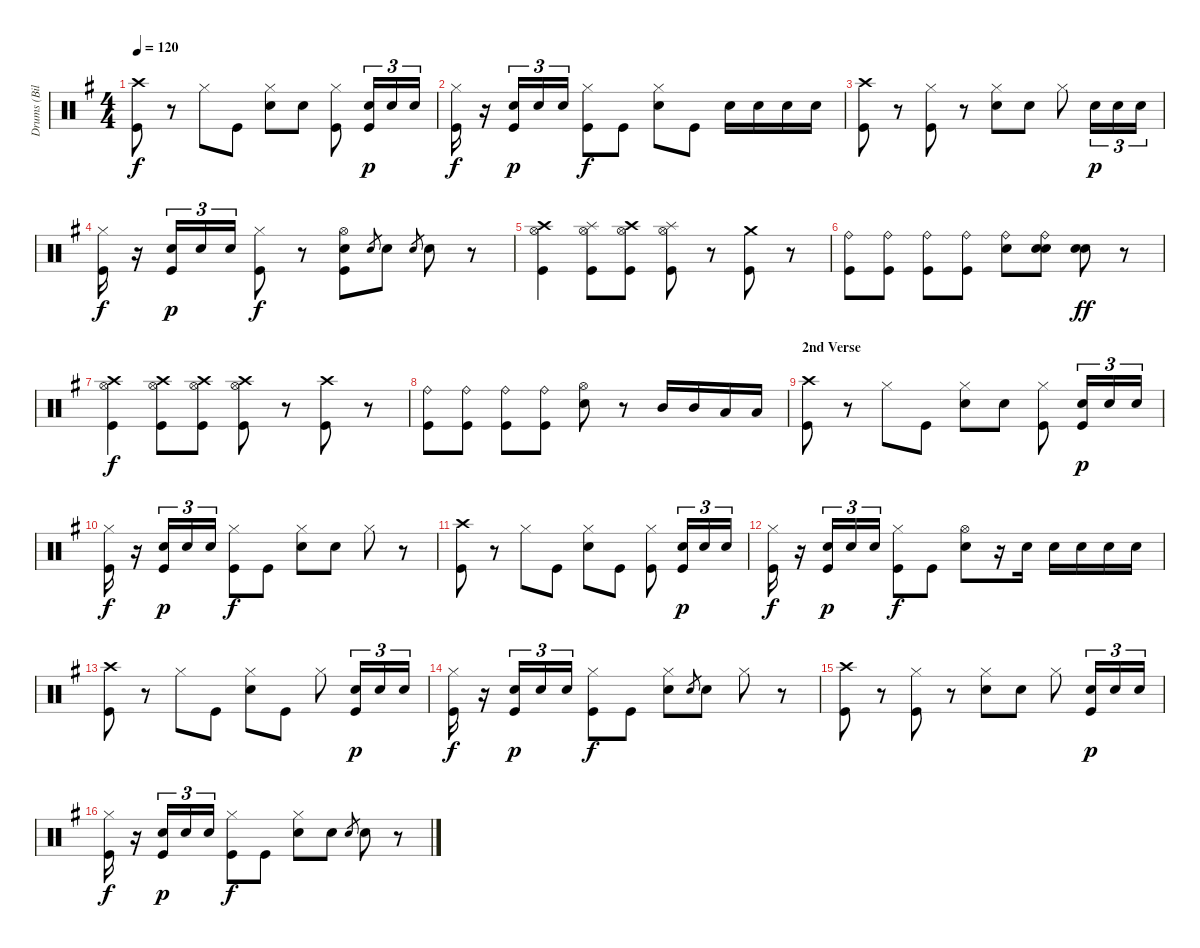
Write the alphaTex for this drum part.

\track ("Drums (Bill Ward)" "Drums (Bil") {instrument percussion}
\staff {score}
\articulation defaults
\ts (4 4)
\tempo 120
\clef neutral
\ks g
("Crash high (hit)" "Kick (hit)").8{dy f} r.8 "Hi-Hat (closed)".8 "Kick (hit)".8 ("Hi-Hat (closed)" "Electric Snare (hit)").8 "Electric Snare (hit)".8 ("Hi-Hat (closed)" "Kick (hit)").8 ("Electric Snare (hit)" "Kick (hit)").16{tu (3 2) dy p} "Electric Snare (hit)".16{tu (3 2)} "Electric Snare (hit)".16{tu (3 2)} |
("Hi-Hat (closed)" "Kick (hit)").16{dy f} r.16 ("Electric Snare (hit)" "Kick (hit)").16{tu (3 2) dy p} "Electric Snare (hit)".16{tu (3 2)} "Electric Snare (hit)".16{tu (3 2)} ("Hi-Hat (closed)" "Kick (hit)").8{dy f} "Kick (hit)".8 ("Hi-Hat (closed)" "Electric Snare (hit)").8 "Kick (hit)".8 "Electric Snare (hit)".16 "Electric Snare (hit)".16 "Electric Snare (hit)".16 "Electric Snare (hit)".16 |
("Crash high (hit)" "Kick (hit)").8 r.8 ("Hi-Hat (closed)" "Kick (hit)").8 r.8 ("Hi-Hat (closed)" "Electric Snare (hit)").8 "Electric Snare (hit)".8 "Hi-Hat (closed)".8 "Electric Snare (hit)".16{tu (3 2) dy p} "Electric Snare (hit)".16{tu (3 2)} "Electric Snare (hit)".16{tu (3 2)} |
("Hi-Hat (closed)" "Kick (hit)").16{dy f} r.16 ("Electric Snare (hit)" "Kick (hit)").16{tu (3 2) dy p} "Electric Snare (hit)".16{tu (3 2)} "Electric Snare (hit)".16{tu (3 2)} ("Hi-Hat (closed)" "Kick (hit)").8{dy f} r.8 ("Hi-Hat (open)" "Electric Snare (hit)" "Kick (hit)").8 "Electric Snare (hit)".8{gr} "Electric Snare (hit)".8 "Electric Snare (hit)".8{gr} "Electric Snare (hit)".8 r.8 |
("Crash high (hit)" "Hi-Hat (open)" "Kick (hit)").4 ("Splash (hit)" "Hi-Hat (open)" "Kick (hit)").8 ("Crash high (hit)" "Hi-Hat (open)" "Kick (hit)").8 ("Splash (hit)" "Hi-Hat (open)" "Kick (hit)").8 r.8 ("Crash medium (hit)" "Kick (hit)").8 r.8 |
("Ride (bell)" "Kick (hit)").8 ("Ride (bell)" "Kick (hit)").8 ("Ride (bell)" "Kick (hit)").8 ("Ride (bell)" "Kick (hit)").8 ("Ride (bell)" "Electric Snare (hit)").8 ("Ride (bell)" "Electric Snare (hit)" "Electric Snare (hit)").8 ("Electric Snare (hit)" "Electric Snare (hit)").8{dy ff} r.8 |
("Crash high (hit)" "Hi-Hat (open)" "Kick (hit)").4{dy f} ("Crash high (hit)" "Hi-Hat (open)" "Kick (hit)").8 ("Crash high (hit)" "Hi-Hat (open)" "Kick (hit)").8 ("Crash high (hit)" "Hi-Hat (open)" "Kick (hit)").8 r.8 ("Crash high (hit)" "Kick (hit)").8 r.8 |
("Ride (bell)" "Kick (hit)").8 ("Ride (bell)" "Kick (hit)").8 ("Ride (bell)" "Kick (hit)").8 ("Ride (bell)" "Kick (hit)").8 ("Hi-Hat (open)" "Electric Snare (hit)").8 r.8 "Mid Tom (hit)".16 "Mid Tom (hit)".16 "Low Tom (hit)".16 "Low Tom (hit)".16 |
\section ("" "2nd Verse")
("Crash high (hit)" "Kick (hit)").8 r.8 "Hi-Hat (closed)".8 "Kick (hit)".8 ("Hi-Hat (closed)" "Electric Snare (hit)").8 "Electric Snare (hit)".8 ("Hi-Hat (closed)" "Kick (hit)").8 ("Electric Snare (hit)" "Kick (hit)").16{tu (3 2) dy p} "Electric Snare (hit)".16{tu (3 2)} "Electric Snare (hit)".16{tu (3 2)} |
("Hi-Hat (closed)" "Kick (hit)").16{dy f} r.16 ("Electric Snare (hit)" "Kick (hit)").16{tu (3 2) dy p} "Electric Snare (hit)".16{tu (3 2)} "Electric Snare (hit)".16{tu (3 2)} ("Hi-Hat (closed)" "Kick (hit)").8{dy f} "Kick (hit)".8 ("Hi-Hat (closed)" "Electric Snare (hit)").8 "Electric Snare (hit)".8 "Hi-Hat (closed)".8 r.8 |
("Crash high (hit)" "Kick (hit)").8 r.8 "Hi-Hat (closed)".8 "Kick (hit)".8 ("Hi-Hat (closed)" "Electric Snare (hit)").8 "Kick (hit)".8 ("Hi-Hat (closed)" "Kick (hit)").8 ("Electric Snare (hit)" "Kick (hit)").16{tu (3 2) dy p} "Electric Snare (hit)".16{tu (3 2)} "Electric Snare (hit)".16{tu (3 2)} |
("Hi-Hat (closed)" "Kick (hit)").16{dy f} r.16 ("Electric Snare (hit)" "Kick (hit)").16{tu (3 2) dy p} "Electric Snare (hit)".16{tu (3 2)} "Electric Snare (hit)".16{tu (3 2)} ("Hi-Hat (closed)" "Kick (hit)").8{dy f} "Kick (hit)".8 ("Hi-Hat (open)" "Electric Snare (hit)").8 r.16 "Electric Snare (hit)".16 "Electric Snare (hit)".16 "Electric Snare (hit)".16 "Electric Snare (hit)".16 "Electric Snare (hit)".16 |
("Crash high (hit)" "Kick (hit)").8 r.8 "Hi-Hat (closed)".8 "Kick (hit)".8 ("Hi-Hat (closed)" "Electric Snare (hit)").8 "Kick (hit)".8 "Hi-Hat (closed)".8 ("Electric Snare (hit)" "Kick (hit)").16{tu (3 2) dy p} "Electric Snare (hit)".16{tu (3 2)} "Electric Snare (hit)".16{tu (3 2)} |
("Hi-Hat (closed)" "Kick (hit)").16{dy f} r.16 ("Electric Snare (hit)" "Kick (hit)").16{tu (3 2) dy p} "Electric Snare (hit)".16{tu (3 2)} "Electric Snare (hit)".16{tu (3 2)} ("Hi-Hat (closed)" "Kick (hit)").8{dy f} "Kick (hit)".8 ("Hi-Hat (closed)" "Electric Snare (hit)").8 "Electric Snare (hit)".8{gr} "Electric Snare (hit)".8 "Hi-Hat (closed)".8 r.8 |
("Crash high (hit)" "Kick (hit)").8 r.8 ("Hi-Hat (closed)" "Kick (hit)").8 r.8 ("Hi-Hat (closed)" "Electric Snare (hit)").8 "Electric Snare (hit)".8 "Hi-Hat (closed)".8 ("Electric Snare (hit)" "Kick (hit)").16{tu (3 2) dy p} "Electric Snare (hit)".16{tu (3 2)} "Electric Snare (hit)".16{tu (3 2)} |
("Hi-Hat (closed)" "Kick (hit)").16{dy f} r.16 ("Electric Snare (hit)" "Kick (hit)").16{tu (3 2) dy p} "Electric Snare (hit)".16{tu (3 2)} "Electric Snare (hit)".16{tu (3 2)} ("Hi-Hat (closed)" "Kick (hit)").8{dy f} "Kick (hit)".8 ("Hi-Hat (closed)" "Electric Snare (hit)").8 "Electric Snare (hit)".8 "Electric Snare (hit)".8{gr} "Electric Snare (hit)".8 r.8
